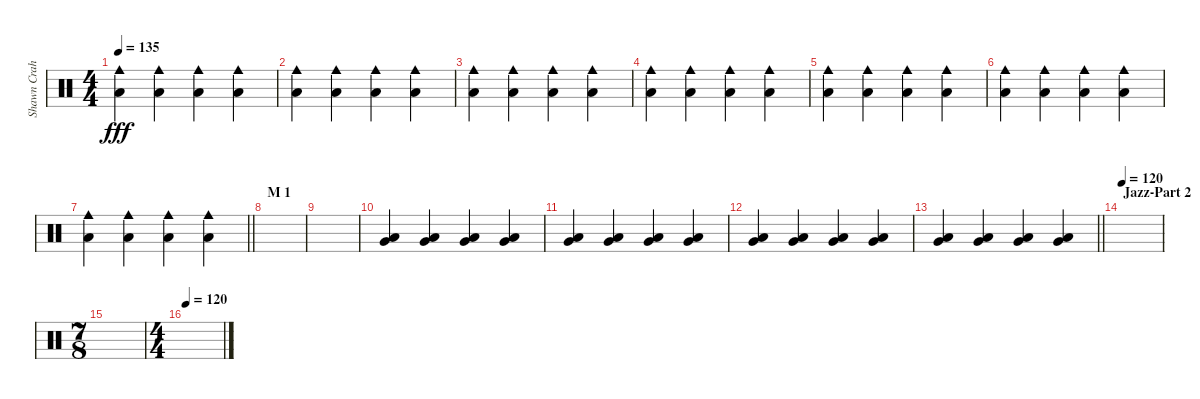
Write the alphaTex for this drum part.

\track ("Shawn Crahan" "Shawn Crah") {instrument percussion}
\staff {score}
\articulation defaults
\ts (4 4)
\tempo 135
\clef neutral
\ks c
("Cowbell medium (hit)" "Low Floor Tom (hit)").4{dy fff} ("Cowbell medium (hit)" "Low Floor Tom (hit)").4 ("Cowbell medium (hit)" "Low Floor Tom (hit)").4 ("Cowbell medium (hit)" "Low Floor Tom (hit)").4 |
("Cowbell medium (hit)" "Low Floor Tom (hit)").4 ("Cowbell medium (hit)" "Low Floor Tom (hit)").4 ("Cowbell medium (hit)" "Low Floor Tom (hit)").4 ("Cowbell medium (hit)" "Low Floor Tom (hit)").4 |
("Cowbell medium (hit)" "Low Floor Tom (hit)").4 ("Cowbell medium (hit)" "Low Floor Tom (hit)").4 ("Cowbell medium (hit)" "Low Floor Tom (hit)").4 ("Cowbell medium (hit)" "Low Floor Tom (hit)").4 |
("Cowbell medium (hit)" "Low Floor Tom (hit)").4 ("Cowbell medium (hit)" "Low Floor Tom (hit)").4 ("Cowbell medium (hit)" "Low Floor Tom (hit)").4 ("Cowbell medium (hit)" "Low Floor Tom (hit)").4 |
("Cowbell medium (hit)" "Low Floor Tom (hit)").4 ("Cowbell medium (hit)" "Low Floor Tom (hit)").4 ("Cowbell medium (hit)" "Low Floor Tom (hit)").4 ("Cowbell medium (hit)" "Low Floor Tom (hit)").4 |
("Cowbell medium (hit)" "Low Floor Tom (hit)").4 ("Cowbell medium (hit)" "Low Floor Tom (hit)").4 ("Cowbell medium (hit)" "Low Floor Tom (hit)").4 ("Cowbell medium (hit)" "Low Floor Tom (hit)").4 |
\barLineRight lightlight
("Cowbell medium (hit)" "Low Floor Tom (hit)").4 ("Cowbell medium (hit)" "Low Floor Tom (hit)").4 ("Cowbell medium (hit)" "Low Floor Tom (hit)").4 ("Cowbell medium (hit)" "Low Floor Tom (hit)").4 |
\section ("" "M 1")
|
|
("Very Low Tom (hit)" "Low Floor Tom (hit)").4 ("Very Low Tom (hit)" "Low Floor Tom (hit)").4 ("Very Low Tom (hit)" "Low Floor Tom (hit)").4 ("Very Low Tom (hit)" "Low Floor Tom (hit)").4 |
("Very Low Tom (hit)" "Low Floor Tom (hit)").4 ("Very Low Tom (hit)" "Low Floor Tom (hit)").4 ("Very Low Tom (hit)" "Low Floor Tom (hit)").4 ("Very Low Tom (hit)" "Low Floor Tom (hit)").4 |
("Very Low Tom (hit)" "Low Floor Tom (hit)").4 ("Very Low Tom (hit)" "Low Floor Tom (hit)").4 ("Very Low Tom (hit)" "Low Floor Tom (hit)").4 ("Very Low Tom (hit)" "Low Floor Tom (hit)").4 |
\barLineRight lightlight
("Very Low Tom (hit)" "Low Floor Tom (hit)").4 ("Very Low Tom (hit)" "Low Floor Tom (hit)").4 ("Very Low Tom (hit)" "Low Floor Tom (hit)").4 ("Very Low Tom (hit)" "Low Floor Tom (hit)").4 |
\section ("" "Jazz-Part 2")
\tempo 120
|
\ts (7 8)
|
\ts (4 4)
\tempo 120
